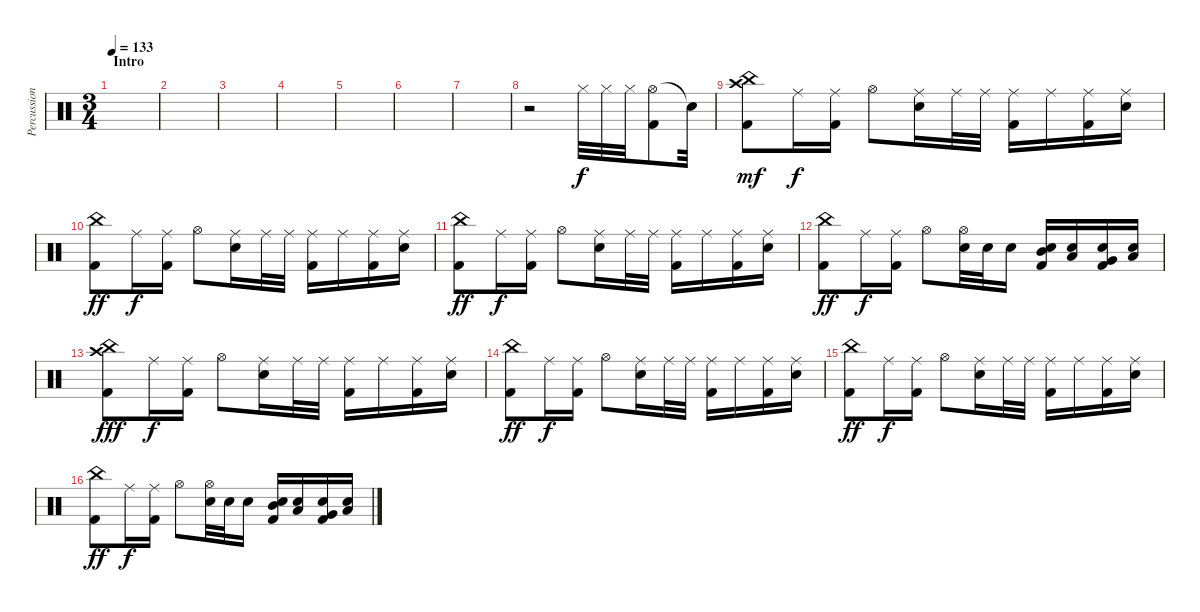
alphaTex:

\track ("Percussion" "Percussion") {instrument percussion}
\staff {score}
\articulation defaults
\ts (3 4)
\section ("" "Intro")
\tempo 133
\clef neutral
\ks c
|
|
|
|
|
|
|
r.2 "Hi-Hat (closed)".32 "Hi-Hat (closed)".32 "Hi-Hat (closed)".32 ("Hi-Hat (open)" "Kick (hit) 2").8 "Snare (hit)"{t}.32 |
("China (hit)" "Crash high (hit)" "Kick (hit) 2").8{dy mf} "Ride (middle)".16{dy f} ("Ride (middle)" "Kick (hit) 2").16 "Hi-Hat (open)".8 ("Ride (middle)" "Electric Snare (hit)").16 "Ride (middle)".32 "Ride (middle)".32 ("Ride (middle)" "Kick (hit) 2").16 "Ride (middle)".16 ("Ride (middle)" "Kick (hit) 2").16 ("Ride (middle)" "Electric Snare (hit)").16 |
("China (hit)" "Kick (hit) 2").8{dy ff} "Ride (middle)".16{dy f} ("Ride (middle)" "Kick (hit) 2").16 "Hi-Hat (open)".8 ("Ride (middle)" "Electric Snare (hit)").16 "Ride (middle)".32 "Ride (middle)".32 ("Ride (middle)" "Kick (hit) 2").16 "Ride (middle)".16 ("Ride (middle)" "Kick (hit) 2").16 ("Ride (middle)" "Electric Snare (hit)").16 |
("China (hit)" "Kick (hit) 2").8{dy ff} "Ride (middle)".16{dy f} ("Ride (middle)" "Kick (hit) 2").16 "Hi-Hat (open)".8 ("Ride (middle)" "Electric Snare (hit)").16 "Ride (middle)".32 "Ride (middle)".32 ("Ride (middle)" "Kick (hit) 2").16 "Ride (middle)".16 ("Ride (middle)" "Kick (hit) 2").16 ("Ride (middle)" "Electric Snare (hit)").16 |
("China (hit)" "Kick (hit) 2").8{dy ff} "Ride (middle)".16{dy f} ("Ride (middle)" "Kick (hit) 2").16 "Hi-Hat (open)".8 ("Electric Snare (hit)" "Hi-Hat (open)").32 "Electric Snare (hit)".32 "Electric Snare (hit)".16 ("Electric Snare (hit)" "Mid Tom (hit)" "Kick (hit) 2").16 ("Electric Snare (hit)" "Low Tom (hit)").16 ("Electric Snare (hit)" "Very Low Tom (hit)" "Kick (hit) 2").16 ("Electric Snare (hit)" "Low Floor Tom (hit)").16 |
("China (hit)" "Crash high (hit)" "Kick (hit) 2").8{dy fff} "Ride (middle)".16{dy f} ("Ride (middle)" "Kick (hit) 2").16 "Hi-Hat (open)".8 ("Ride (middle)" "Electric Snare (hit)").16 "Ride (middle)".32 "Ride (middle)".32 ("Ride (middle)" "Kick (hit) 2").16 "Ride (middle)".16 ("Ride (middle)" "Kick (hit) 2").16 ("Ride (middle)" "Electric Snare (hit)").16 |
("China (hit)" "Kick (hit) 2").8{dy ff} "Ride (middle)".16{dy f} ("Ride (middle)" "Kick (hit) 2").16 "Hi-Hat (open)".8 ("Ride (middle)" "Electric Snare (hit)").16 "Ride (middle)".32 "Ride (middle)".32 ("Ride (middle)" "Kick (hit) 2").16 "Ride (middle)".16 ("Ride (middle)" "Kick (hit) 2").16 ("Ride (middle)" "Electric Snare (hit)").16 |
("China (hit)" "Kick (hit) 2").8{dy ff} "Ride (middle)".16{dy f} ("Ride (middle)" "Kick (hit) 2").16 "Hi-Hat (open)".8 ("Ride (middle)" "Electric Snare (hit)").16 "Ride (middle)".32 "Ride (middle)".32 ("Ride (middle)" "Kick (hit) 2").16 "Ride (middle)".16 ("Ride (middle)" "Kick (hit) 2").16 ("Ride (middle)" "Electric Snare (hit)").16 |
("China (hit)" "Kick (hit) 2").8{dy ff} "Ride (middle)".16{dy f} ("Ride (middle)" "Kick (hit) 2").16 "Hi-Hat (open)".8 ("Electric Snare (hit)" "Hi-Hat (open)").32 "Electric Snare (hit)".32 "Electric Snare (hit)".16 ("Electric Snare (hit)" "Mid Tom (hit)" "Kick (hit) 2").16 ("Electric Snare (hit)" "Low Tom (hit)").16 ("Electric Snare (hit)" "Very Low Tom (hit)" "Kick (hit) 2").16 ("Electric Snare (hit)" "Low Floor Tom (hit)").16
